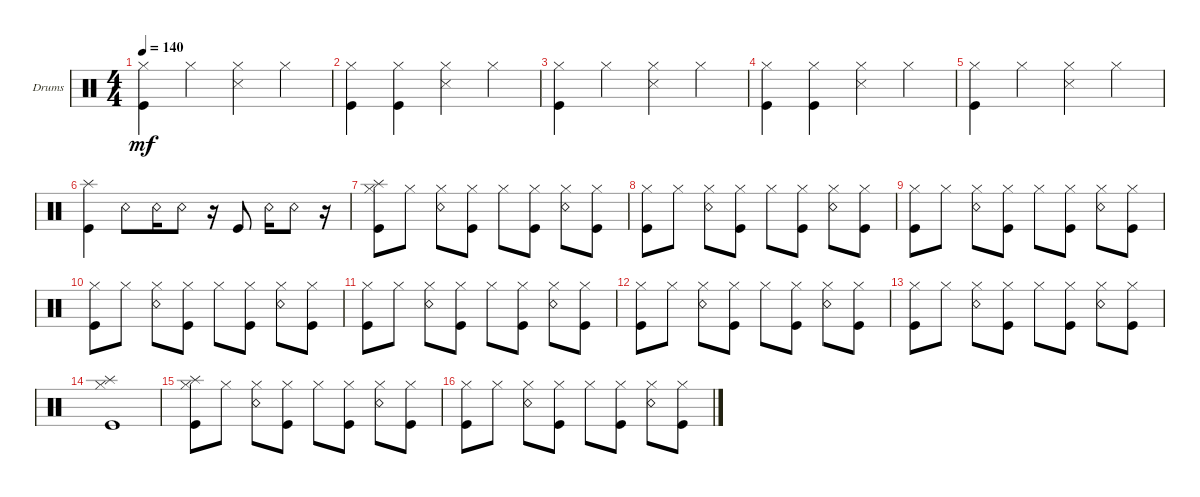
\defaultSystemsLayout 4
\bracketExtendMode groupsimilarinstruments
\firstSystemTrackNameOrientation horizontal
\otherSystemsTrackNameOrientation horizontal
\track ("Drumkit" "Drums") {instrument percussion}
\staff {score}
\articulation defaults
\ts (4 4)
\tempo 140
\clef neutral
\ks c
("Hi-Hat (closed)" "Kick (hit)").4{dy mf} "Hi-Hat (closed)".4 ("Hi-Hat (closed)" "Snare (side stick) 3").4 "Hi-Hat (closed)".4 |
("Hi-Hat (closed)" "Kick (hit)").4 ("Hi-Hat (closed)" "Kick (hit)").4 ("Hi-Hat (closed)" "Snare (side stick) 3").4 "Hi-Hat (closed)".4 |
("Hi-Hat (closed)" "Kick (hit)").4 "Hi-Hat (closed)".4 ("Hi-Hat (closed)" "Snare (side stick) 3").4 "Hi-Hat (closed)".4 |
("Hi-Hat (closed)" "Kick (hit)").4 ("Hi-Hat (closed)" "Kick (hit)").4 ("Hi-Hat (closed)" "Snare (side stick) 3").4 "Hi-Hat (closed)".4 |
("Hi-Hat (closed)" "Kick (hit)").4 "Hi-Hat (closed)".4 ("Hi-Hat (closed)" "Snare (side stick) 3").4 "Hi-Hat (closed)".4 |
("Splash (hit)" "Kick (hit)").4 "Snare (rim shot)".8 "Snare (rim shot)".16 "Snare (rim shot)".8 r.16 "Kick (hit)".8 "Snare (rim shot)".16 "Snare (rim shot)".8 r.16 |
("Kick (hit)" "Hi-Hat (closed)" "Splash (hit)").8 "Hi-Hat (closed)".8 ("Hi-Hat (closed)" "Snare (rim shot)").8 ("Hi-Hat (closed)" "Kick (hit)").8 "Hi-Hat (closed)".8 ("Hi-Hat (closed)" "Kick (hit)").8 ("Hi-Hat (closed)" "Snare (rim shot)").8 ("Hi-Hat (closed)" "Kick (hit)").8 |
("Kick (hit)" "Hi-Hat (closed)").8 "Hi-Hat (closed)".8 ("Hi-Hat (closed)" "Snare (rim shot)").8 ("Hi-Hat (closed)" "Kick (hit)").8 "Hi-Hat (closed)".8 ("Hi-Hat (closed)" "Kick (hit)").8 ("Hi-Hat (closed)" "Snare (rim shot)").8 ("Hi-Hat (closed)" "Kick (hit)").8 |
("Kick (hit)" "Hi-Hat (closed)").8 "Hi-Hat (closed)".8 ("Hi-Hat (closed)" "Snare (rim shot)").8 ("Hi-Hat (closed)" "Kick (hit)").8 "Hi-Hat (closed)".8 ("Hi-Hat (closed)" "Kick (hit)").8 ("Hi-Hat (closed)" "Snare (rim shot)").8 ("Hi-Hat (closed)" "Kick (hit)").8 |
("Kick (hit)" "Hi-Hat (closed)").8 "Hi-Hat (closed)".8 ("Hi-Hat (closed)" "Snare (rim shot)").8 ("Hi-Hat (closed)" "Kick (hit)").8 "Hi-Hat (closed)".8 ("Hi-Hat (closed)" "Kick (hit)").8 ("Hi-Hat (closed)" "Snare (rim shot)").8 ("Hi-Hat (closed)" "Kick (hit)").8 |
("Kick (hit)" "Hi-Hat (closed)").8 "Hi-Hat (closed)".8 ("Hi-Hat (closed)" "Snare (rim shot)").8 ("Hi-Hat (closed)" "Kick (hit)").8 "Hi-Hat (closed)".8 ("Hi-Hat (closed)" "Kick (hit)").8 ("Hi-Hat (closed)" "Snare (rim shot)").8 ("Hi-Hat (closed)" "Kick (hit)").8 |
("Kick (hit)" "Hi-Hat (closed)").8 "Hi-Hat (closed)".8 ("Hi-Hat (closed)" "Snare (rim shot)").8 ("Hi-Hat (closed)" "Kick (hit)").8 "Hi-Hat (closed)".8 ("Hi-Hat (closed)" "Kick (hit)").8 ("Hi-Hat (closed)" "Snare (rim shot)").8 ("Hi-Hat (closed)" "Kick (hit)").8 |
("Kick (hit)" "Hi-Hat (closed)").8 "Hi-Hat (closed)".8 ("Hi-Hat (closed)" "Snare (rim shot)").8 ("Hi-Hat (closed)" "Kick (hit)").8 "Hi-Hat (closed)".8 ("Hi-Hat (closed)" "Kick (hit)").8 ("Hi-Hat (closed)" "Snare (rim shot)").8 ("Hi-Hat (closed)" "Kick (hit)").8 |
("Kick (hit)" "Hi-Hat (closed)" "Splash (hit)").1 |
("Kick (hit)" "Hi-Hat (closed)" "Splash (hit)").8 "Hi-Hat (closed)".8 ("Hi-Hat (closed)" "Snare (rim shot)").8 ("Hi-Hat (closed)" "Kick (hit)").8 "Hi-Hat (closed)".8 ("Hi-Hat (closed)" "Kick (hit)").8 ("Hi-Hat (closed)" "Snare (rim shot)").8 ("Hi-Hat (closed)" "Kick (hit)").8 |
("Kick (hit)" "Hi-Hat (closed)").8 "Hi-Hat (closed)".8 ("Hi-Hat (closed)" "Snare (rim shot)").8 ("Hi-Hat (closed)" "Kick (hit)").8 "Hi-Hat (closed)".8 ("Hi-Hat (closed)" "Kick (hit)").8 ("Hi-Hat (closed)" "Snare (rim shot)").8 ("Hi-Hat (closed)" "Kick (hit)").8
